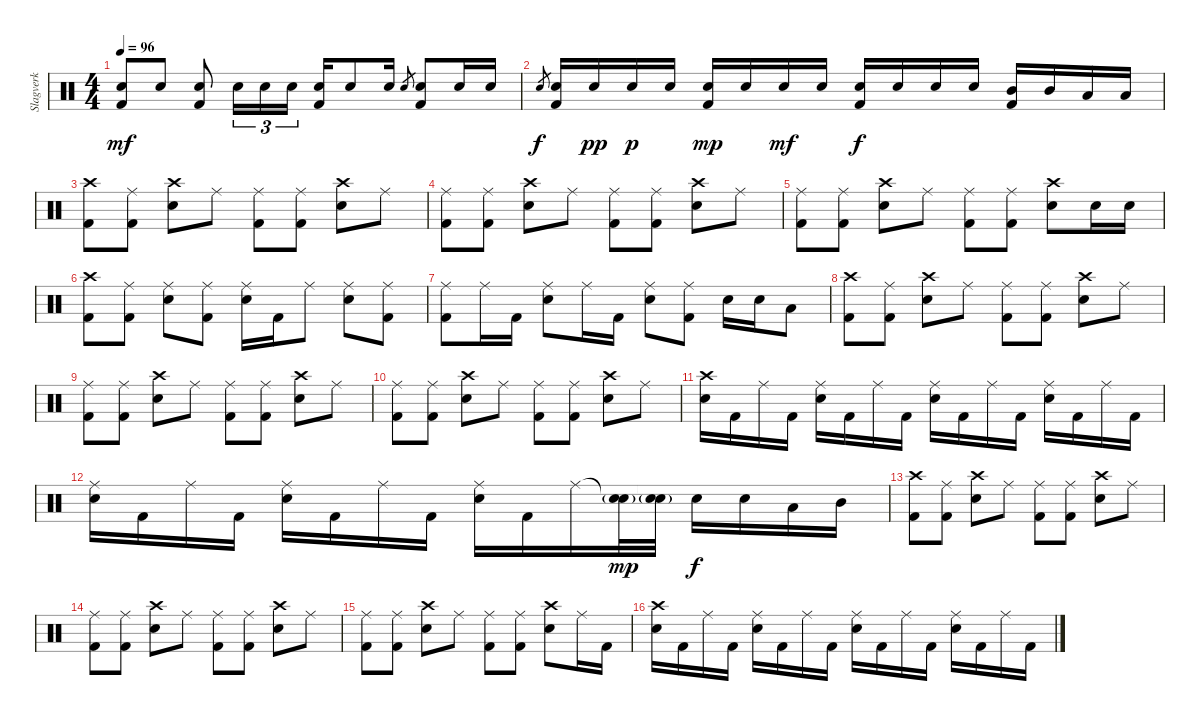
\track ("Slagverk" "Slagverk") {instrument percussion}
\staff {score}
\articulation defaults
\ts (4 4)
\tempo 96
\clef neutral
\ks c
("Snare (hit) 2" "Kick (hit) 2").8{dy mf} "Snare (hit) 2".8 ("Snare (hit) 2" "Kick (hit) 2").8 "Snare (hit) 2".16{tu (3 2)} "Snare (hit) 2".16{tu (3 2)} "Snare (hit) 2".16{tu (3 2)} ("Snare (hit) 2" "Kick (hit) 2").16 "Snare (hit) 2".8 "Snare (hit) 2".16 "Snare (hit) 2".8{gr} ("Snare (hit) 2" "Kick (hit) 2").8 "Snare (hit) 2".16 "Snare (hit) 2".16 |
"Snare (hit) 2".8{gr dy f} ("Snare (hit) 2" "Kick (hit) 2").16 "Snare (hit) 2".16{dy pp} "Snare (hit) 2".16{dy p} "Snare (hit) 2".16 ("Snare (hit) 2" "Kick (hit) 2").16{dy mp} "Snare (hit) 2".16 "Snare (hit) 2".16{dy mf} "Snare (hit) 2".16 ("Snare (hit) 2" "Kick (hit) 2").16{dy f} "Snare (hit) 2".16 "Snare (hit) 2".16 "Snare (hit) 2".16 ("Mid Tom (hit)" "Kick (hit) 2").16 "Mid Tom (hit)".16 "Low Tom (hit)".16 "Low Tom (hit)".16 |
("Crash high (hit)" "Kick (hit) 2").8 ("Ride (middle)" "Kick (hit) 2").8 ("Crash high (hit)" "Electric Snare (hit)").8 "Ride (middle)".8 ("Ride (middle)" "Kick (hit) 2").8 ("Ride (middle)" "Kick (hit) 2").8 ("Crash high (hit)" "Electric Snare (hit)").8 "Ride (middle)".8 |
("Ride (middle)" "Kick (hit) 2").8 ("Ride (middle)" "Kick (hit) 2").8 ("Crash high (hit)" "Electric Snare (hit)").8 "Ride (middle)".8 ("Ride (middle)" "Kick (hit) 2").8 ("Ride (middle)" "Kick (hit) 2").8 ("Crash high (hit)" "Electric Snare (hit)").8 "Ride (middle)".8 |
("Ride (middle)" "Kick (hit) 2").8 ("Ride (middle)" "Kick (hit) 2").8 ("Crash high (hit)" "Electric Snare (hit)").8 "Ride (middle)".8 ("Ride (middle)" "Kick (hit) 2").8 ("Ride (middle)" "Kick (hit) 2").8 ("Crash high (hit)" "Electric Snare (hit)").8 "Electric Snare (hit)".16 "Electric Snare (hit)".16 |
("Crash high (hit)" "Kick (hit) 2").8 ("Ride (middle)" "Kick (hit) 2").8 ("Ride (middle)" "Electric Snare (hit)").8 ("Ride (middle)" "Kick (hit) 2").8 ("Ride (middle)" "Electric Snare (hit)").16 "Kick (hit) 2".16 "Ride (middle)".8 ("Ride (middle)" "Electric Snare (hit)").8 ("Ride (middle)" "Kick (hit) 2").8 |
("Ride (middle)" "Kick (hit) 2").8 "Ride (middle)".16 "Kick (hit) 2".16 ("Ride (middle)" "Electric Snare (hit)").8 "Ride (middle)".16 "Kick (hit) 2".16 ("Ride (middle)" "Electric Snare (hit)").8 ("Ride (middle)" "Kick (hit) 2").8 "Electric Snare (hit)".16 "Electric Snare (hit)".16 "Low Tom (hit)".8 |
("Crash high (hit)" "Kick (hit) 2").8 ("Ride (middle)" "Kick (hit) 2").8 ("Crash high (hit)" "Electric Snare (hit)").8 "Ride (middle)".8 ("Ride (middle)" "Kick (hit) 2").8 ("Ride (middle)" "Kick (hit) 2").8 ("Crash high (hit)" "Electric Snare (hit)").8 "Ride (middle)".8 |
("Ride (middle)" "Kick (hit) 2").8 ("Ride (middle)" "Kick (hit) 2").8 ("Crash high (hit)" "Electric Snare (hit)").8 "Ride (middle)".8 ("Ride (middle)" "Kick (hit) 2").8 ("Ride (middle)" "Kick (hit) 2").8 ("Crash high (hit)" "Electric Snare (hit)").8 "Ride (middle)".8 |
("Ride (middle)" "Kick (hit) 2").8 ("Ride (middle)" "Kick (hit) 2").8 ("Crash high (hit)" "Electric Snare (hit)").8 "Ride (middle)".8 ("Ride (middle)" "Kick (hit) 2").8 ("Ride (middle)" "Kick (hit) 2").8 ("Crash high (hit)" "Electric Snare (hit)").8 "Ride (middle)".8 |
("Crash high (hit)" "Electric Snare (hit)").16 "Kick (hit) 2".16 "Ride (middle)".16 "Kick (hit) 2".16 ("Ride (middle)" "Electric Snare (hit)").16 "Kick (hit) 2".16 "Ride (middle)".16 "Kick (hit) 2".16 ("Ride (middle)" "Electric Snare (hit)").16 "Kick (hit) 2".16 "Ride (middle)".16 "Kick (hit) 2".16 ("Ride (middle)" "Electric Snare (hit)").16 "Kick (hit) 2".16 "Ride (middle)".16 "Kick (hit) 2".16 |
("Ride (middle)" "Electric Snare (hit)").16 "Kick (hit) 2".16 "Ride (middle)".16 "Kick (hit) 2".16 ("Ride (middle)" "Electric Snare (hit)").16 "Kick (hit) 2".16 "Ride (middle)".16 "Kick (hit) 2".16 ("Ride (middle)" "Electric Snare (hit)").16 "Kick (hit) 2".16 "Ride (middle)".16 ("Snare (hit)"{t} "Electric Snare (hit)"{g}).32{dy mp} ("Snare (hit)"{t} "Electric Snare (hit)"{g}).32 "Electric Snare (hit)".16{dy f} "Electric Snare (hit)".16 "Low Tom (hit)".16 "Mid Tom (hit)".16 |
("Crash high (hit)" "Kick (hit) 2").8 ("Ride (middle)" "Kick (hit) 2").8 ("Crash high (hit)" "Electric Snare (hit)").8 "Ride (middle)".8 ("Ride (middle)" "Kick (hit) 2").8 ("Ride (middle)" "Kick (hit) 2").8 ("Crash high (hit)" "Electric Snare (hit)").8 "Ride (middle)".8 |
("Ride (middle)" "Kick (hit) 2").8 ("Ride (middle)" "Kick (hit) 2").8 ("Crash high (hit)" "Electric Snare (hit)").8 "Ride (middle)".8 ("Ride (middle)" "Kick (hit) 2").8 ("Ride (middle)" "Kick (hit) 2").8 ("Crash high (hit)" "Electric Snare (hit)").8 "Ride (middle)".8 |
("Ride (middle)" "Kick (hit) 2").8 ("Ride (middle)" "Kick (hit) 2").8 ("Crash high (hit)" "Electric Snare (hit)").8 "Ride (middle)".8 ("Ride (middle)" "Kick (hit) 2").8 ("Ride (middle)" "Kick (hit) 2").8 ("Crash high (hit)" "Electric Snare (hit)").8 "Ride (middle)".16 "Kick (hit) 2".16 |
("Crash high (hit)" "Electric Snare (hit)").16 "Kick (hit) 2".16 "Ride (middle)".16 "Kick (hit) 2".16 ("Ride (middle)" "Electric Snare (hit)").16 "Kick (hit) 2".16 "Ride (middle)".16 "Kick (hit) 2".16 ("Ride (middle)" "Electric Snare (hit)").16 "Kick (hit) 2".16 "Ride (middle)".16 "Kick (hit) 2".16 ("Ride (middle)" "Electric Snare (hit)").16 "Kick (hit) 2".16 "Ride (middle)".16 "Kick (hit) 2".16
